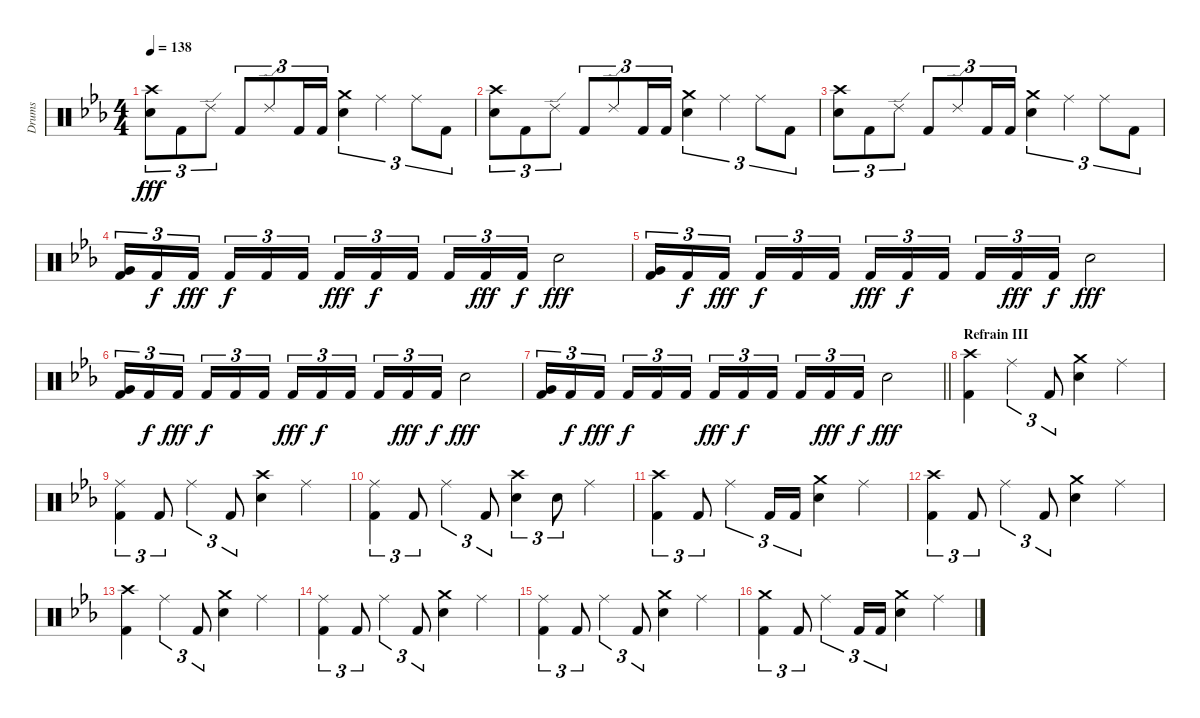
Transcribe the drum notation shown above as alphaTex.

\track ("Drums" "Drums") {instrument percussion}
\staff {score}
\articulation defaults
\ts (4 4)
\tempo 138
\clef neutral
\ks eb
("Crash high (hit)" "Snare (hit) 2").8{tu (3 2) dy fff} "Kick (hit) 2".8{tu (3 2)} "Ride (edge) 2".8{tu (3 2)} "Kick (hit) 2".8{tu (3 2)} "Ride (edge) 2".8{tu (3 2)} "Kick (hit) 2".16{tu (3 2)} "Kick (hit) 2".16{tu (3 2)} ("Crash medium (hit)" "Snare (hit) 2").4{tu (3 2)} "Ride (middle)".4{tu (3 2)} "Ride (middle)".8{tu (3 2)} "Kick (hit) 2".8{tu (3 2)} |
("Crash high (hit)" "Snare (hit) 2").8{tu (3 2)} "Kick (hit) 2".8{tu (3 2)} "Ride (edge) 2".8{tu (3 2)} "Kick (hit) 2".8{tu (3 2)} "Ride (edge) 2".8{tu (3 2)} "Kick (hit) 2".16{tu (3 2)} "Kick (hit) 2".16{tu (3 2)} ("Crash medium (hit)" "Snare (hit) 2").4{tu (3 2)} "Ride (middle)".4{tu (3 2)} "Ride (middle)".8{tu (3 2)} "Kick (hit) 2".8{tu (3 2)} |
("Crash high (hit)" "Snare (hit) 2").8{tu (3 2)} "Kick (hit) 2".8{tu (3 2)} "Ride (edge) 2".8{tu (3 2)} "Kick (hit) 2".8{tu (3 2)} "Ride (edge) 2".8{tu (3 2)} "Kick (hit) 2".16{tu (3 2)} "Kick (hit) 2".16{tu (3 2)} ("Crash medium (hit)" "Snare (hit) 2").4{tu (3 2)} "Ride (middle)".4{tu (3 2)} "Ride (middle)".8{tu (3 2)} "Kick (hit) 2".8{tu (3 2)} |
("Very Low Tom (hit)" "Kick (hit) 2").16{tu (3 2)} "Kick (hit) 2".16{tu (3 2) dy f} "Kick (hit) 2".16{tu (3 2) dy fff} "Kick (hit) 2".16{tu (3 2) dy f} "Kick (hit) 2".16{tu (3 2)} "Kick (hit) 2".16{tu (3 2)} "Kick (hit) 2".16{tu (3 2) dy fff} "Kick (hit) 2".16{tu (3 2) dy f} "Kick (hit) 2".16{tu (3 2)} "Kick (hit) 2".16{tu (3 2)} "Kick (hit) 2".16{tu (3 2) dy fff} "Kick (hit) 2".16{tu (3 2) dy f} "Snare (hit) 2".2{dy fff} |
("Very Low Tom (hit)" "Kick (hit) 2").16{tu (3 2)} "Kick (hit) 2".16{tu (3 2) dy f} "Kick (hit) 2".16{tu (3 2) dy fff} "Kick (hit) 2".16{tu (3 2) dy f} "Kick (hit) 2".16{tu (3 2)} "Kick (hit) 2".16{tu (3 2)} "Kick (hit) 2".16{tu (3 2) dy fff} "Kick (hit) 2".16{tu (3 2) dy f} "Kick (hit) 2".16{tu (3 2)} "Kick (hit) 2".16{tu (3 2)} "Kick (hit) 2".16{tu (3 2) dy fff} "Kick (hit) 2".16{tu (3 2) dy f} "Snare (hit) 2".2{dy fff} |
("Very Low Tom (hit)" "Kick (hit) 2").16{tu (3 2)} "Kick (hit) 2".16{tu (3 2) dy f} "Kick (hit) 2".16{tu (3 2) dy fff} "Kick (hit) 2".16{tu (3 2) dy f} "Kick (hit) 2".16{tu (3 2)} "Kick (hit) 2".16{tu (3 2)} "Kick (hit) 2".16{tu (3 2) dy fff} "Kick (hit) 2".16{tu (3 2) dy f} "Kick (hit) 2".16{tu (3 2)} "Kick (hit) 2".16{tu (3 2)} "Kick (hit) 2".16{tu (3 2) dy fff} "Kick (hit) 2".16{tu (3 2) dy f} "Snare (hit) 2".2{dy fff} |
\barLineRight lightlight
("Very Low Tom (hit)" "Kick (hit) 2").16{tu (3 2)} "Kick (hit) 2".16{tu (3 2) dy f} "Kick (hit) 2".16{tu (3 2) dy fff} "Kick (hit) 2".16{tu (3 2) dy f} "Kick (hit) 2".16{tu (3 2)} "Kick (hit) 2".16{tu (3 2)} "Kick (hit) 2".16{tu (3 2) dy fff} "Kick (hit) 2".16{tu (3 2) dy f} "Kick (hit) 2".16{tu (3 2)} "Kick (hit) 2".16{tu (3 2)} "Kick (hit) 2".16{tu (3 2) dy fff} "Kick (hit) 2".16{tu (3 2) dy f} "Snare (hit) 2".2{dy fff} |
\section ("" "Refrain III")
("Crash high (hit)" "Kick (hit) 2").4 "Ride (middle)".4{tu (3 2)} "Kick (hit) 2".8{tu (3 2)} ("Crash medium (hit)" "Snare (hit) 2").4 "Ride (middle)".4 |
("Ride (middle)" "Kick (hit) 2").4{tu (3 2)} "Kick (hit) 2".8{tu (3 2)} "Ride (middle)".4{tu (3 2)} "Kick (hit) 2".8{tu (3 2)} ("Crash high (hit)" "Snare (hit) 2").4 "Ride (middle)".4 |
("Ride (middle)" "Kick (hit) 2").4{tu (3 2)} "Kick (hit) 2".8{tu (3 2)} "Ride (middle)".4{tu (3 2)} "Kick (hit) 2".8{tu (3 2)} ("Crash high (hit)" "Snare (hit) 2").4{tu (3 2)} "Snare (hit) 2".8{tu (3 2)} "Ride (middle)".4 |
("Crash high (hit)" "Kick (hit) 2").4{tu (3 2)} "Kick (hit) 2".8{tu (3 2)} "Ride (middle)".4{tu (3 2)} "Kick (hit) 2".16{tu (3 2)} "Kick (hit) 2".16{tu (3 2)} ("Crash medium (hit)" "Snare (hit) 2").4 "Ride (middle)".4 |
("Crash high (hit)" "Kick (hit) 2").4{tu (3 2)} "Kick (hit) 2".8{tu (3 2)} "Ride (middle)".4{tu (3 2)} "Kick (hit) 2".8{tu (3 2)} ("Crash medium (hit)" "Snare (hit) 2").4 "Ride (middle)".4 |
("Crash high (hit)" "Kick (hit) 2").4 "Ride (middle)".4{tu (3 2)} "Kick (hit) 2".8{tu (3 2)} ("Crash medium (hit)" "Snare (hit) 2").4 "Ride (middle)".4 |
("Ride (middle)" "Kick (hit) 2").4{tu (3 2)} "Kick (hit) 2".8{tu (3 2)} "Ride (middle)".4{tu (3 2)} "Kick (hit) 2".8{tu (3 2)} ("Crash medium (hit)" "Snare (hit) 2").4 "Ride (middle)".4 |
("Ride (middle)" "Kick (hit) 2").4{tu (3 2)} "Kick (hit) 2".8{tu (3 2)} "Ride (middle)".4{tu (3 2)} "Kick (hit) 2".8{tu (3 2)} ("Crash medium (hit)" "Snare (hit) 2").4 "Ride (middle)".4 |
("Crash medium (hit)" "Kick (hit) 2").4{tu (3 2)} "Kick (hit) 2".8{tu (3 2)} "Ride (middle)".4{tu (3 2)} "Kick (hit) 2".16{tu (3 2)} "Kick (hit) 2".16{tu (3 2)} ("Crash medium (hit)" "Snare (hit) 2").4 "Ride (middle)".4
